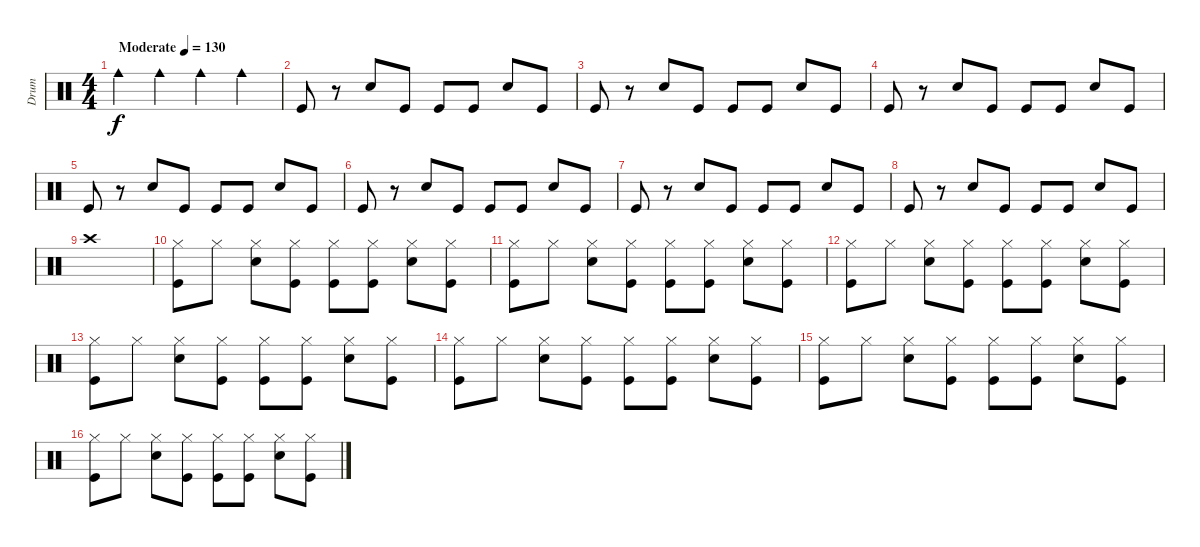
\track ("Drum" "Drum") {instrument percussion}
\staff {score}
\articulation defaults
\ts (4 4)
\tempo (130 "Moderate")
\clef neutral
\ks c "Cowbell medium (hit)".4{dy f} "Cowbell medium (hit)".4 "Cowbell medium (hit)".4 "Cowbell medium (hit)".4
|
"Kick (hit)".8 r.8 "Electric Snare (hit)".8 "Kick (hit)".8 "Kick (hit)".8 "Kick (hit)".8 "Electric Snare (hit)".8 "Kick (hit)".8 |
"Kick (hit)".8 r.8 "Electric Snare (hit)".8 "Kick (hit)".8 "Kick (hit)".8 "Kick (hit)".8 "Electric Snare (hit)".8 "Kick (hit)".8 |
"Kick (hit)".8 r.8 "Electric Snare (hit)".8 "Kick (hit)".8 "Kick (hit)".8 "Kick (hit)".8 "Electric Snare (hit)".8 "Kick (hit)".8 |
"Kick (hit)".8 r.8 "Electric Snare (hit)".8 "Kick (hit)".8 "Kick (hit)".8 "Kick (hit)".8 "Electric Snare (hit)".8 "Kick (hit)".8 |
"Kick (hit)".8 r.8 "Electric Snare (hit)".8 "Kick (hit)".8 "Kick (hit)".8 "Kick (hit)".8 "Electric Snare (hit)".8 "Kick (hit)".8 |
"Kick (hit)".8 r.8 "Electric Snare (hit)".8 "Kick (hit)".8 "Kick (hit)".8 "Kick (hit)".8 "Electric Snare (hit)".8 "Kick (hit)".8 |
"Kick (hit)".8 r.8 "Electric Snare (hit)".8 "Kick (hit)".8 "Kick (hit)".8 "Kick (hit)".8 "Electric Snare (hit)".8 "Kick (hit)".8 |
"Crash high (hit)".1 |
("Hi-Hat (closed)" "Kick (hit)").8 "Hi-Hat (closed)".8 ("Hi-Hat (closed)" "Electric Snare (hit)").8 ("Hi-Hat (closed)" "Kick (hit)").8 ("Hi-Hat (closed)" "Kick (hit)").8 ("Hi-Hat (closed)" "Kick (hit)").8 ("Hi-Hat (closed)" "Electric Snare (hit)").8 ("Hi-Hat (closed)" "Kick (hit)").8 |
("Hi-Hat (closed)" "Kick (hit)").8 "Hi-Hat (closed)".8 ("Hi-Hat (closed)" "Electric Snare (hit)").8 ("Hi-Hat (closed)" "Kick (hit)").8 ("Hi-Hat (closed)" "Kick (hit)").8 ("Hi-Hat (closed)" "Kick (hit)").8 ("Hi-Hat (closed)" "Electric Snare (hit)").8 ("Hi-Hat (closed)" "Kick (hit)").8 |
("Hi-Hat (closed)" "Kick (hit)").8 "Hi-Hat (closed)".8 ("Hi-Hat (closed)" "Electric Snare (hit)").8 ("Hi-Hat (closed)" "Kick (hit)").8 ("Hi-Hat (closed)" "Kick (hit)").8 ("Hi-Hat (closed)" "Kick (hit)").8 ("Hi-Hat (closed)" "Electric Snare (hit)").8 ("Hi-Hat (closed)" "Kick (hit)").8 |
("Hi-Hat (closed)" "Kick (hit)").8 "Hi-Hat (closed)".8 ("Hi-Hat (closed)" "Electric Snare (hit)").8 ("Hi-Hat (closed)" "Kick (hit)").8 ("Hi-Hat (closed)" "Kick (hit)").8 ("Hi-Hat (closed)" "Kick (hit)").8 ("Hi-Hat (closed)" "Electric Snare (hit)").8 ("Hi-Hat (closed)" "Kick (hit)").8 |
("Hi-Hat (closed)" "Kick (hit)").8 "Hi-Hat (closed)".8 ("Hi-Hat (closed)" "Electric Snare (hit)").8 ("Hi-Hat (closed)" "Kick (hit)").8 ("Hi-Hat (closed)" "Kick (hit)").8 ("Hi-Hat (closed)" "Kick (hit)").8 ("Hi-Hat (closed)" "Electric Snare (hit)").8 ("Hi-Hat (closed)" "Kick (hit)").8 |
("Hi-Hat (closed)" "Kick (hit)").8 "Hi-Hat (closed)".8 ("Hi-Hat (closed)" "Electric Snare (hit)").8 ("Hi-Hat (closed)" "Kick (hit)").8 ("Hi-Hat (closed)" "Kick (hit)").8 ("Hi-Hat (closed)" "Kick (hit)").8 ("Hi-Hat (closed)" "Electric Snare (hit)").8 ("Hi-Hat (closed)" "Kick (hit)").8 |
("Hi-Hat (closed)" "Kick (hit)").8 "Hi-Hat (closed)".8 ("Hi-Hat (closed)" "Electric Snare (hit)").8 ("Hi-Hat (closed)" "Kick (hit)").8 ("Hi-Hat (closed)" "Kick (hit)").8 ("Hi-Hat (closed)" "Kick (hit)").8 ("Hi-Hat (closed)" "Electric Snare (hit)").8 ("Hi-Hat (closed)" "Kick (hit)").8
